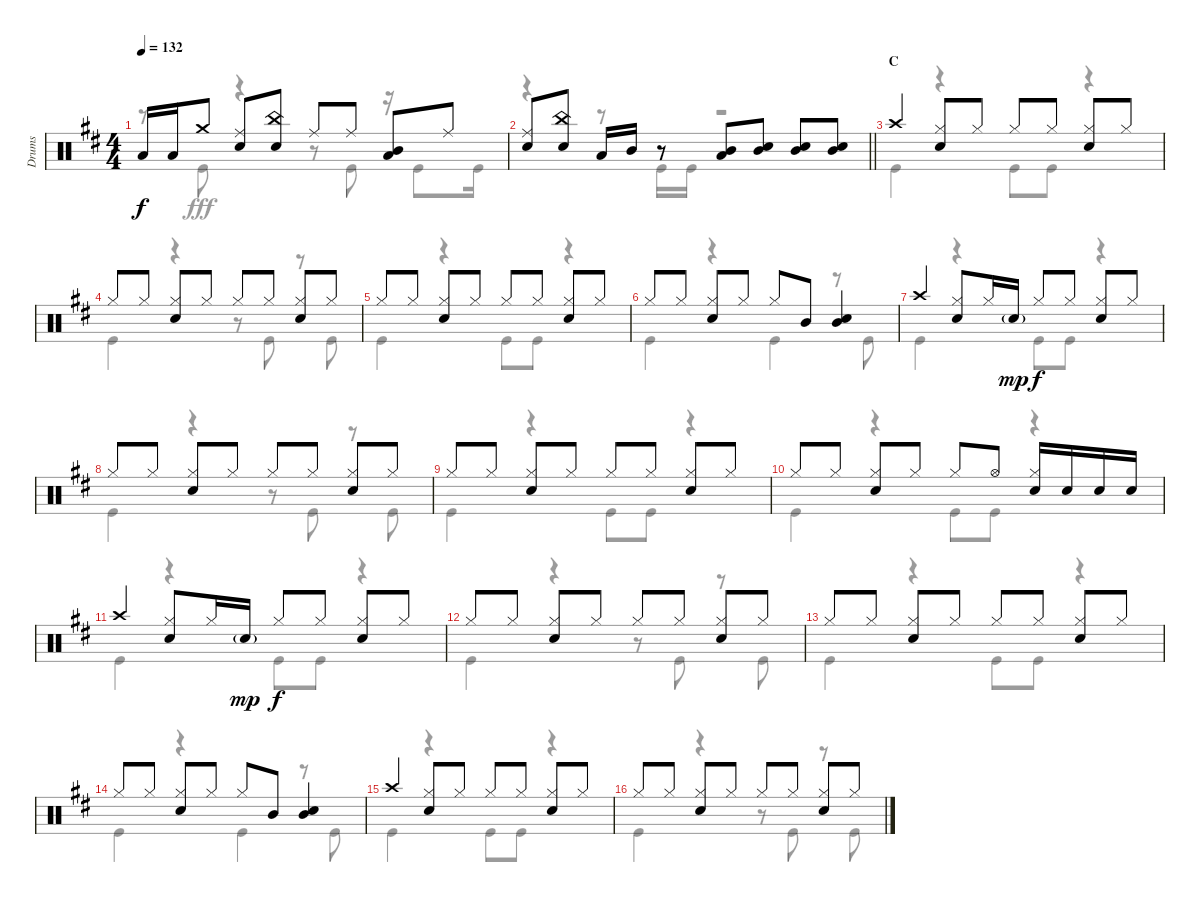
\track ("Drums" "Drums") {instrument percussion}
\staff {score}
\articulation defaults
\voice
\ts (4 4)
\tempo 132
\clef neutral
\ks d "Low Tom (hit)".16{dy f} "Low Tom (hit)".16 "Crash medium (hit)".8
("Ride (middle)" "Snare (hit) 2").8 ("China (hit)" "Snare (hit) 2").8 "Ride (middle)".8 "Ride (middle)".8 ("Mid Tom (hit)" "Low Tom (hit)").8 "Ride (middle)".8 |
\barLineRight lightlight
("Ride (middle)" "Snare (hit) 2").8 ("China (hit)" "Snare (hit) 2").8 "Low Tom (hit)".16 "Mid Tom (hit)".16 r.8 ("Mid Tom (hit)" "Low Tom (hit)").8 ("Mid Tom (hit)" "Snare (hit) 2").8 ("Mid Tom (hit)" "Snare (hit) 2").8 ("Mid Tom (hit)" "Snare (hit) 2").8 |
\section ("" "C")
"Crash high (hit)".4 ("Hi-Hat (closed)" "Snare (hit) 2").8 "Hi-Hat (closed)".8 "Hi-Hat (closed)".8 "Hi-Hat (closed)".8 ("Hi-Hat (closed)" "Snare (hit) 2").8 "Hi-Hat (closed)".8 |
"Hi-Hat (closed)".8 "Hi-Hat (closed)".8 ("Hi-Hat (closed)" "Snare (hit) 2").8 "Hi-Hat (closed)".8 "Hi-Hat (closed)".8 "Hi-Hat (closed)".8 ("Hi-Hat (closed)" "Snare (hit) 2").8 "Hi-Hat (closed)".8 |
"Hi-Hat (closed)".8 "Hi-Hat (closed)".8 ("Hi-Hat (closed)" "Snare (hit) 2").8 "Hi-Hat (closed)".8 "Hi-Hat (closed)".8 "Hi-Hat (closed)".8 ("Hi-Hat (closed)" "Snare (hit) 2").8 "Hi-Hat (closed)".8 |
"Hi-Hat (closed)".8 "Hi-Hat (closed)".8 ("Hi-Hat (closed)" "Snare (hit) 2").8 "Hi-Hat (closed)".8 "Hi-Hat (closed)".8 "Mid Tom (hit)".8 ("Mid Tom (hit)" "Snare (hit) 2").4 |
"Crash high (hit)".4 ("Hi-Hat (closed)" "Snare (hit) 2").8 "Hi-Hat (closed)".16 "Snare (hit) 2"{g}.16{dy mp} "Hi-Hat (closed)".8{dy f} "Hi-Hat (closed)".8 ("Hi-Hat (closed)" "Snare (hit) 2").8 "Hi-Hat (closed)".8 |
"Hi-Hat (closed)".8 "Hi-Hat (closed)".8 ("Hi-Hat (closed)" "Snare (hit) 2").8 "Hi-Hat (closed)".8 "Hi-Hat (closed)".8 "Hi-Hat (closed)".8 ("Hi-Hat (closed)" "Snare (hit) 2").8 "Hi-Hat (closed)".8 |
"Hi-Hat (closed)".8 "Hi-Hat (closed)".8 ("Hi-Hat (closed)" "Snare (hit) 2").8 "Hi-Hat (closed)".8 "Hi-Hat (closed)".8 "Hi-Hat (closed)".8 ("Hi-Hat (closed)" "Snare (hit) 2").8 "Hi-Hat (closed)".8 |
"Hi-Hat (closed)".8 "Hi-Hat (closed)".8 ("Hi-Hat (closed)" "Snare (hit) 2").8 "Hi-Hat (closed)".8 "Hi-Hat (closed)".8 "Hi-Hat (open)".8 ("Hi-Hat (closed)" "Snare (hit) 2").16 "Snare (hit) 2".16 "Snare (hit) 2".16 "Snare (hit) 2".16 |
"Crash high (hit)".4 ("Hi-Hat (closed)" "Snare (hit) 2").8 "Hi-Hat (closed)".16 "Snare (hit) 2"{g}.16{dy mp} "Hi-Hat (closed)".8{dy f} "Hi-Hat (closed)".8 ("Hi-Hat (closed)" "Snare (hit) 2").8 "Hi-Hat (closed)".8 |
"Hi-Hat (closed)".8 "Hi-Hat (closed)".8 ("Hi-Hat (closed)" "Snare (hit) 2").8 "Hi-Hat (closed)".8 "Hi-Hat (closed)".8 "Hi-Hat (closed)".8 ("Hi-Hat (closed)" "Snare (hit) 2").8 "Hi-Hat (closed)".8 |
"Hi-Hat (closed)".8 "Hi-Hat (closed)".8 ("Hi-Hat (closed)" "Snare (hit) 2").8 "Hi-Hat (closed)".8 "Hi-Hat (closed)".8 "Hi-Hat (closed)".8 ("Hi-Hat (closed)" "Snare (hit) 2").8 "Hi-Hat (closed)".8 |
"Hi-Hat (closed)".8 "Hi-Hat (closed)".8 ("Hi-Hat (closed)" "Snare (hit) 2").8 "Hi-Hat (closed)".8 "Hi-Hat (closed)".8 "Mid Tom (hit)".8 ("Mid Tom (hit)" "Snare (hit) 2").4 |
"Crash high (hit)".4 ("Hi-Hat (closed)" "Snare (hit) 2").8 "Hi-Hat (closed)".8 "Hi-Hat (closed)".8 "Hi-Hat (closed)".8 ("Hi-Hat (closed)" "Snare (hit) 2").8 "Hi-Hat (closed)".8 |
"Hi-Hat (closed)".8 "Hi-Hat (closed)".8 ("Hi-Hat (closed)" "Snare (hit) 2").8 "Hi-Hat (closed)".8 "Hi-Hat (closed)".8 "Hi-Hat (closed)".8 ("Hi-Hat (closed)" "Snare (hit) 2").8 "Hi-Hat (closed)".8
\voice
\clef neutral
\ottava regular
\simile none
\ks d
r.8{dy fff} "Kick (hit)".8 r.4 r.8 "Kick (hit)".8 r.16 "Kick (hit)".8 "Kick (hit)".16 |
\barLineRight lightlight
r.4 r.8 "Kick (hit)".16 "Kick (hit)".16 r.2 |
"Kick (hit)".4 r.4 "Kick (hit)".8 "Kick (hit)".8 r.4 |
"Kick (hit)".4 r.4 r.8 "Kick (hit)".8 r.8 "Kick (hit)".8 |
"Kick (hit)".4 r.4 "Kick (hit)".8 "Kick (hit)".8 r.4 |
"Kick (hit)".4 r.4 "Kick (hit)".4 r.8 "Kick (hit)".8 |
"Kick (hit)".4 r.4 "Kick (hit)".8 "Kick (hit)".8 r.4 |
"Kick (hit)".4 r.4 r.8 "Kick (hit)".8 r.8 "Kick (hit)".8 |
"Kick (hit)".4 r.4 "Kick (hit)".8 "Kick (hit)".8 r.4 |
"Kick (hit)".4 r.4 "Kick (hit)".8 "Kick (hit)".8 r.4 |
"Kick (hit)".4 r.4 "Kick (hit)".8 "Kick (hit)".8 r.4 |
"Kick (hit)".4 r.4 r.8 "Kick (hit)".8 r.8 "Kick (hit)".8 |
"Kick (hit)".4 r.4 "Kick (hit)".8 "Kick (hit)".8 r.4 |
"Kick (hit)".4 r.4 "Kick (hit)".4 r.8 "Kick (hit)".8 |
"Kick (hit)".4 r.4 "Kick (hit)".8 "Kick (hit)".8 r.4 |
"Kick (hit)".4 r.4 r.8 "Kick (hit)".8 r.8 "Kick (hit)".8
